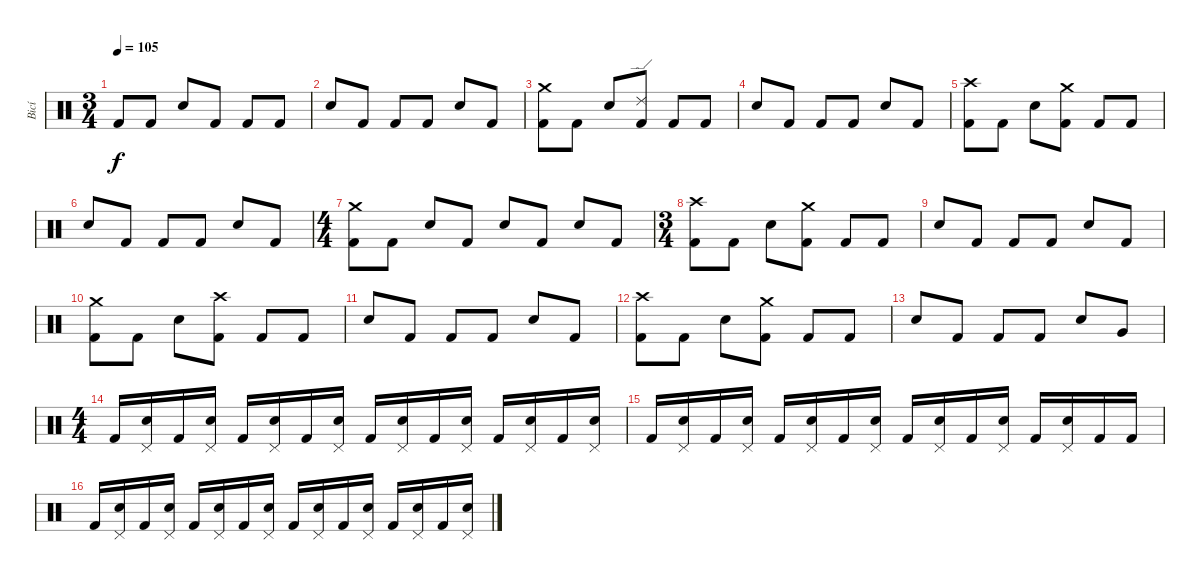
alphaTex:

\track ("Bicí" "Bicí") {instrument percussion}
\staff {score}
\articulation defaults
\ts (3 4)
\tempo 105
\clef neutral
\ks c "Kick (hit) 2".8{dy f} "Kick (hit) 2".8 "Snare (hit) 2".8 "Kick (hit) 2".8 "Kick (hit) 2".8 "Kick (hit) 2".8
|
"Snare (hit) 2".8 "Kick (hit) 2".8 "Kick (hit) 2".8 "Kick (hit) 2".8 "Snare (hit) 2".8 "Kick (hit) 2".8 |
("Kick (hit) 2" "Crash medium (hit)").8 "Kick (hit) 2".8 "Snare (hit) 2".8 ("Kick (hit) 2" "Ride (edge) 2").8 "Kick (hit) 2".8 "Kick (hit) 2".8 |
"Snare (hit) 2".8 "Kick (hit) 2".8 "Kick (hit) 2".8 "Kick (hit) 2".8 "Snare (hit) 2".8 "Kick (hit) 2".8 |
("Kick (hit) 2" "Crash high (hit)").8 "Kick (hit) 2".8 "Snare (hit) 2".8 ("Kick (hit) 2" "Crash medium (hit)").8 "Kick (hit) 2".8 "Kick (hit) 2".8 |
"Snare (hit) 2".8 "Kick (hit) 2".8 "Kick (hit) 2".8 "Kick (hit) 2".8 "Snare (hit) 2".8 "Kick (hit) 2".8 |
\ts (4 4)
("Kick (hit) 2" "Crash medium (hit)").8 "Kick (hit) 2".8 "Snare (hit) 2".8 "Kick (hit) 2".8 "Snare (hit) 2".8 "Kick (hit) 2".8 "Snare (hit) 2".8 "Kick (hit) 2".8 |
\ts (3 4)
("Kick (hit) 2" "Crash high (hit)").8 "Kick (hit) 2".8 "Snare (hit) 2".8 ("Kick (hit) 2" "Crash medium (hit)").8 "Kick (hit) 2".8 "Kick (hit) 2".8 |
"Snare (hit) 2".8 "Kick (hit) 2".8 "Kick (hit) 2".8 "Kick (hit) 2".8 "Snare (hit) 2".8 "Kick (hit) 2".8 |
("Kick (hit) 2" "Crash medium (hit)").8 "Kick (hit) 2".8 "Snare (hit) 2".8 ("Kick (hit) 2" "Crash high (hit)").8 "Kick (hit) 2".8 "Kick (hit) 2".8 |
"Snare (hit) 2".8 "Kick (hit) 2".8 "Kick (hit) 2".8 "Kick (hit) 2".8 "Snare (hit) 2".8 "Kick (hit) 2".8 |
("Kick (hit) 2" "Crash high (hit)").8 "Kick (hit) 2".8 "Snare (hit) 2".8 ("Kick (hit) 2" "Crash medium (hit)").8 "Kick (hit) 2".8 "Kick (hit) 2".8 |
"Snare (hit) 2".8 "Kick (hit) 2".8 "Kick (hit) 2".8 "Kick (hit) 2".8 "Snare (hit) 2".8 "Very Low Tom (hit)".8 |
\ts (4 4)
"Kick (hit) 2".16 ("Pedal Hi-Hat (hit)" "Snare (hit) 2").16 "Kick (hit) 2".16 ("Pedal Hi-Hat (hit)" "Snare (hit) 2").16 "Kick (hit) 2".16 ("Pedal Hi-Hat (hit)" "Snare (hit) 2").16 "Kick (hit) 2".16 ("Pedal Hi-Hat (hit)" "Snare (hit) 2").16 "Kick (hit) 2".16 ("Pedal Hi-Hat (hit)" "Snare (hit) 2").16 "Kick (hit) 2".16 ("Pedal Hi-Hat (hit)" "Snare (hit) 2").16 "Kick (hit) 2".16 ("Pedal Hi-Hat (hit)" "Snare (hit) 2").16 "Kick (hit) 2".16 ("Pedal Hi-Hat (hit)" "Snare (hit) 2").16 |
"Kick (hit) 2".16 ("Pedal Hi-Hat (hit)" "Snare (hit) 2").16 "Kick (hit) 2".16 ("Pedal Hi-Hat (hit)" "Snare (hit) 2").16 "Kick (hit) 2".16 ("Pedal Hi-Hat (hit)" "Snare (hit) 2").16 "Kick (hit) 2".16 ("Pedal Hi-Hat (hit)" "Snare (hit) 2").16 "Kick (hit) 2".16 ("Pedal Hi-Hat (hit)" "Snare (hit) 2").16 "Kick (hit) 2".16 ("Pedal Hi-Hat (hit)" "Snare (hit) 2").16 "Kick (hit) 2".16 ("Pedal Hi-Hat (hit)" "Snare (hit) 2").16 "Kick (hit) 2".16 "Kick (hit) 2".16 |
"Kick (hit) 2".16 ("Pedal Hi-Hat (hit)" "Snare (hit) 2").16 "Kick (hit) 2".16 ("Pedal Hi-Hat (hit)" "Snare (hit) 2").16 "Kick (hit) 2".16 ("Pedal Hi-Hat (hit)" "Snare (hit) 2").16 "Kick (hit) 2".16 ("Pedal Hi-Hat (hit)" "Snare (hit) 2").16 "Kick (hit) 2".16 ("Pedal Hi-Hat (hit)" "Snare (hit) 2").16 "Kick (hit) 2".16 ("Pedal Hi-Hat (hit)" "Snare (hit) 2").16 "Kick (hit) 2".16 ("Pedal Hi-Hat (hit)" "Snare (hit) 2").16 "Kick (hit) 2".16 ("Pedal Hi-Hat (hit)" "Snare (hit) 2").16
